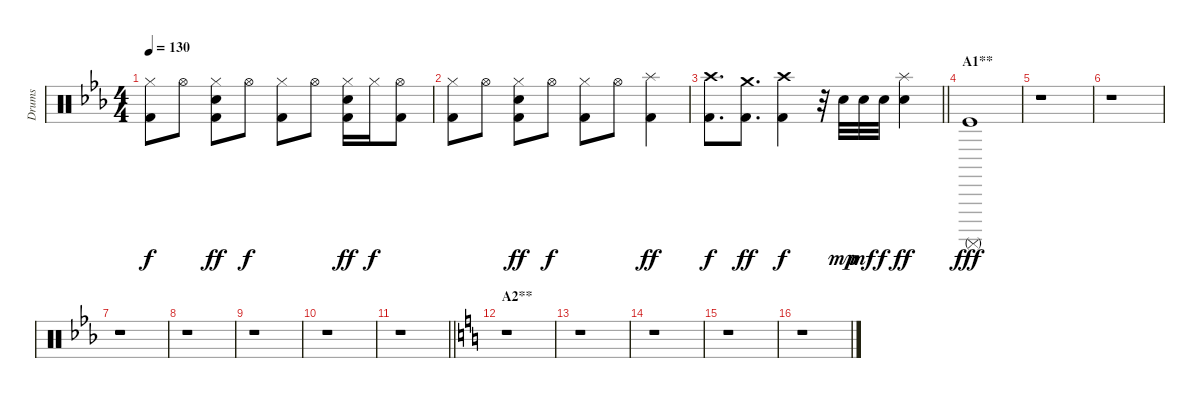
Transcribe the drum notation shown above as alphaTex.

\track ("Drums" "Drums") {instrument percussion}
\staff {score}
\articulation defaults
\ts (4 4)
\tempo 130
\clef neutral
\ks eb
("Hi-Hat (closed)" "Kick (hit) 2").8{dy f} "Hi-Hat (open)".8 ("Hi-Hat (closed)" "Hand Clap (hit)" "Kick (hit) 2").8{dy ff} "Hi-Hat (open)".8{dy f} ("Hi-Hat (closed)" "Kick (hit) 2").8 "Hi-Hat (open)".8 ("Hi-Hat (closed)" "Hand Clap (hit)" "Kick (hit) 2").16{dy ff} "Hi-Hat (closed)".16{dy f} ("Hi-Hat (open)" "Kick (hit) 2").8 |
("Hi-Hat (closed)" "Kick (hit) 2").8 "Hi-Hat (open)".8 ("Hi-Hat (closed)" "Hand Clap (hit)" "Kick (hit) 2").8{dy ff} "Hi-Hat (open)".8{dy f} ("Hi-Hat (closed)" "Kick (hit) 2").8 "Hi-Hat (open)".8 ("Splash (hit)" "Kick (hit) 2").4{dy ff} |
\barLineRight lightlight
("Crash high (hit)" "Kick (hit) 2").8{d dy f} ("Crash medium (hit)" "Kick (hit) 2").8{d dy ff} ("Crash high (hit)" "Kick (hit) 2").4{dy f} r.32 "Electric Snare (hit)".32{dy mp} "Electric Snare (hit)".32{dy mf} "Electric Snare (hit)".32{dy f} ("Splash (hit)" "Electric Snare (hit)").4{dy ff} |
\section ("" "A1**")
("Surdo (mute)" "Kick (hit)").1{dy fff} |
r.1 |
r.1 |
r.1 |
r.1 |
r.1 |
r.1 |
\barLineRight lightlight
r.1 |
\section ("" "A2**")
\ks c
r.1 |
r.1 |
r.1 |
r.1 |
r.1
